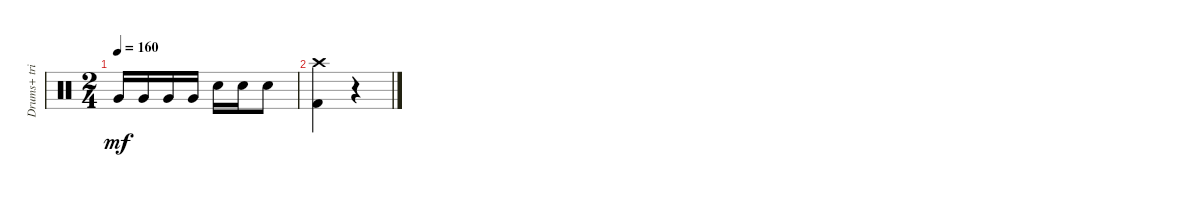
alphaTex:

\track ("Drums+ triangle" "Drums+ tri") {instrument percussion}
\staff {score}
\articulation defaults
\ts (2 4)
\tempo 160
\clef neutral
\ks c "Very Low Tom (hit)".16{dy mf} "Very Low Tom (hit)".16 "Very Low Tom (hit)".16 "Very Low Tom (hit)".16 "Snare (hit) 2".16 "Snare (hit) 2".16 "Snare (hit) 2".8
|
("Kick (hit) 2" "Crash high (hit)").4 r.4
